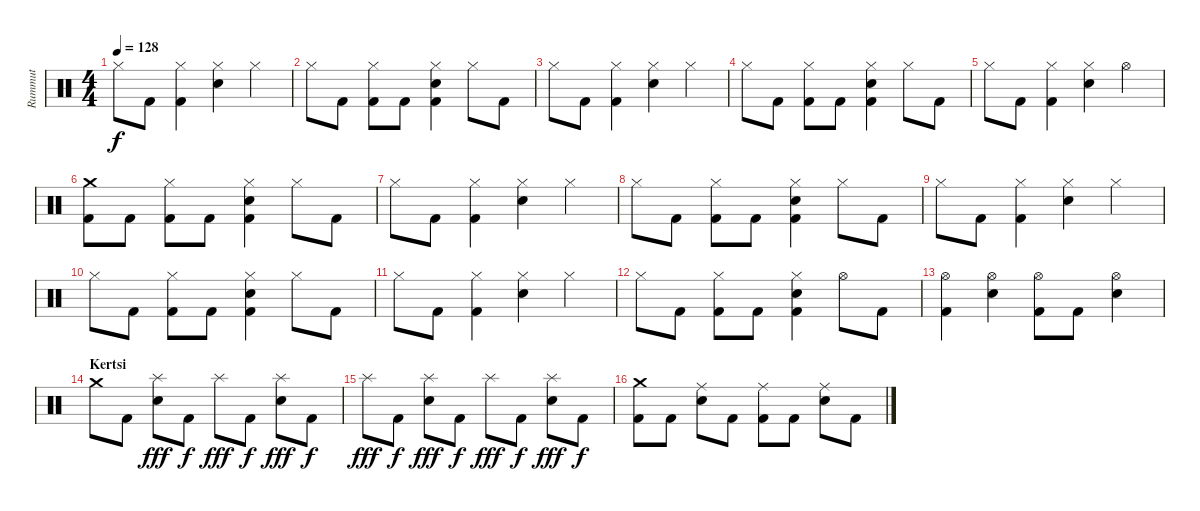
\track ("Rummut" "Rummut") {instrument percussion}
\staff {score}
\articulation defaults
\ts (4 4)
\tempo 128
\clef neutral
\ks c "Hi-Hat (closed)".8{dy f} "Kick (hit) 2".8
("Kick (hit) 2" "Hi-Hat (closed)").4 ("Hi-Hat (closed)" "Snare (hit) 2").4 "Hi-Hat (closed)".4 |
"Hi-Hat (closed)".8 "Kick (hit) 2".8 ("Kick (hit) 2" "Hi-Hat (closed)").8 "Kick (hit) 2".8 ("Kick (hit) 2" "Hi-Hat (closed)" "Snare (hit) 2").4 "Hi-Hat (closed)".8 "Kick (hit) 2".8 |
"Hi-Hat (closed)".8 "Kick (hit) 2".8 ("Kick (hit) 2" "Hi-Hat (closed)").4 ("Hi-Hat (closed)" "Snare (hit) 2").4 "Hi-Hat (closed)".4 |
"Hi-Hat (closed)".8 "Kick (hit) 2".8 ("Kick (hit) 2" "Hi-Hat (closed)").8 "Kick (hit) 2".8 ("Kick (hit) 2" "Hi-Hat (closed)" "Snare (hit) 2").4 "Hi-Hat (closed)".8 "Kick (hit) 2".8 |
"Hi-Hat (closed)".8 "Kick (hit) 2".8 ("Kick (hit) 2" "Hi-Hat (closed)").4 ("Hi-Hat (closed)" "Snare (hit) 2").4 "Hi-Hat (open)".4 |
("Kick (hit) 2" "Crash medium (hit)").8 "Kick (hit) 2".8 ("Kick (hit) 2" "Hi-Hat (closed)").8 "Kick (hit) 2".8 ("Kick (hit) 2" "Hi-Hat (closed)" "Snare (hit) 2").4 "Hi-Hat (closed)".8 "Kick (hit) 2".8 |
"Hi-Hat (closed)".8 "Kick (hit) 2".8 ("Kick (hit) 2" "Hi-Hat (closed)").4 ("Hi-Hat (closed)" "Snare (hit) 2").4 "Hi-Hat (closed)".4 |
"Hi-Hat (closed)".8 "Kick (hit) 2".8 ("Kick (hit) 2" "Hi-Hat (closed)").8 "Kick (hit) 2".8 ("Kick (hit) 2" "Hi-Hat (closed)" "Snare (hit) 2").4 "Hi-Hat (closed)".8 "Kick (hit) 2".8 |
"Hi-Hat (closed)".8 "Kick (hit) 2".8 ("Kick (hit) 2" "Hi-Hat (closed)").4 ("Hi-Hat (closed)" "Snare (hit) 2").4 "Hi-Hat (closed)".4 |
"Hi-Hat (closed)".8 "Kick (hit) 2".8 ("Kick (hit) 2" "Hi-Hat (closed)").8 "Kick (hit) 2".8 ("Kick (hit) 2" "Hi-Hat (closed)" "Snare (hit) 2").4 "Hi-Hat (closed)".8 "Kick (hit) 2".8 |
"Hi-Hat (closed)".8 "Kick (hit) 2".8 ("Kick (hit) 2" "Hi-Hat (closed)").4 ("Hi-Hat (closed)" "Snare (hit) 2").4 "Hi-Hat (closed)".4 |
"Hi-Hat (closed)".8 "Kick (hit) 2".8 ("Kick (hit) 2" "Hi-Hat (closed)").8 "Kick (hit) 2".8 ("Kick (hit) 2" "Hi-Hat (closed)" "Snare (hit) 2").4 "Hi-Hat (open)".8 "Kick (hit) 2".8 |
("Kick (hit) 2" "Hi-Hat (open)").4 ("Hi-Hat (open)" "Snare (hit) 2").4 ("Kick (hit) 2" "Hi-Hat (open)").8 "Kick (hit) 2".8 ("Hi-Hat (open)" "Snare (hit) 2").4 |
\section ("" "Kertsi")
"Crash medium (hit)".8 "Kick (hit) 2".8 ("Splash (hit)" "Snare (hit) 2").8{dy fff} "Kick (hit) 2".8{dy f} "Splash (hit)".8{dy fff} "Kick (hit) 2".8{dy f} ("Splash (hit)" "Snare (hit) 2").8{dy fff} "Kick (hit) 2".8{dy f} |
"Splash (hit)".8{dy fff} "Kick (hit) 2".8{dy f} ("Splash (hit)" "Snare (hit) 2").8{dy fff} "Kick (hit) 2".8{dy f} "Splash (hit)".8{dy fff} "Kick (hit) 2".8{dy f} ("Splash (hit)" "Snare (hit) 2").8{dy fff} "Kick (hit) 2".8{dy f} |
("Kick (hit) 2" "Crash medium (hit)").8 "Kick (hit) 2".8 ("Ride (middle)" "Snare (hit) 2").8 "Kick (hit) 2".8 ("Kick (hit) 2" "Ride (middle)").8 "Kick (hit) 2".8 ("Ride (middle)" "Snare (hit) 2").8 "Kick (hit) 2".8
